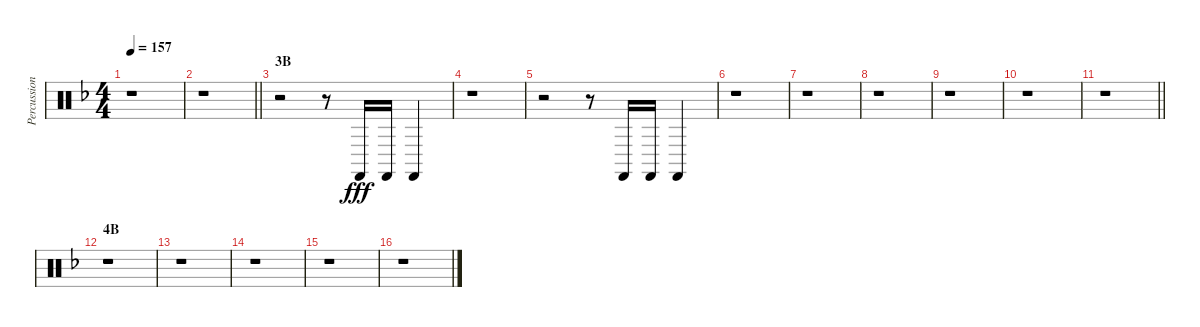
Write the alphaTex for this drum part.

\track ("Percussion" "Percussion") {instrument percussion}
\staff {score}
\articulation defaults
\ts (4 4)
\tempo 157
\clef neutral
\ks f
r.1{dy fff} |
\barLineRight lightlight
r.1 |
\section ("" "3B")
r.2 r.8 "Castanets (hit)".16 "Castanets (hit)".16 "Castanets (hit)".4 |
r.1 |
r.2 r.8 "Castanets (hit)".16 "Castanets (hit)".16 "Castanets (hit)".4 |
r.1 |
r.1 |
r.1 |
r.1 |
r.1 |
\barLineRight lightlight
r.1 |
\section ("" "4B")
r.1 |
r.1 |
r.1 |
r.1 |
r.1
